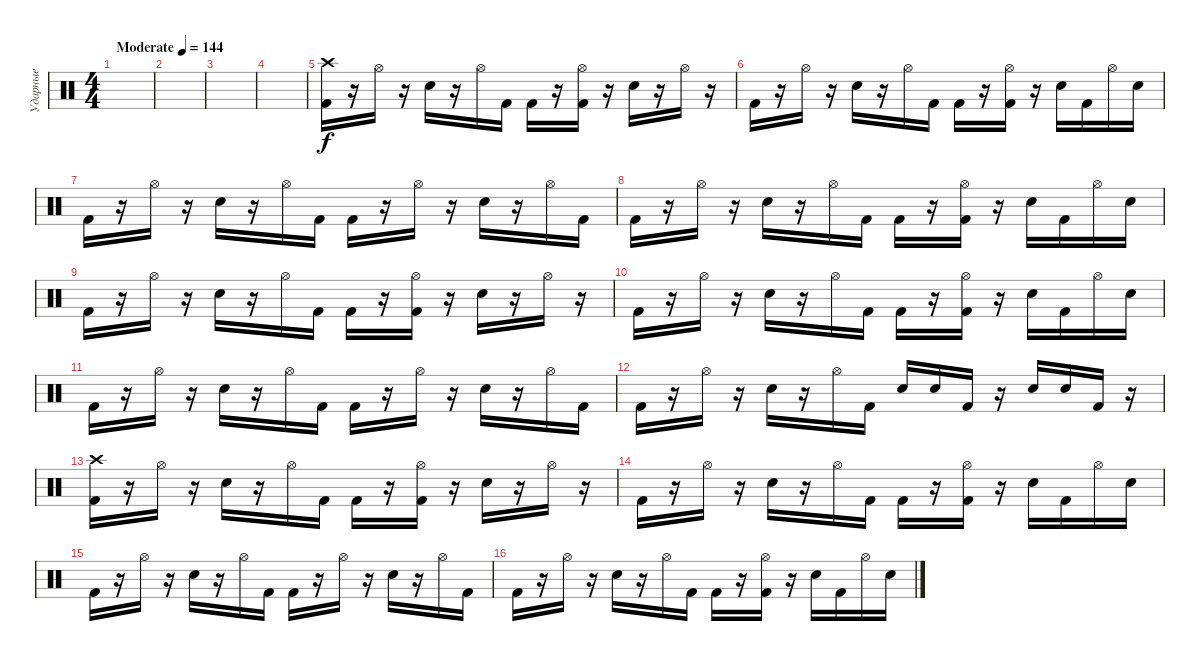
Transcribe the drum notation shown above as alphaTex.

\track ("Ударные" "Ударные") {instrument percussion}
\staff {score}
\articulation defaults
\ts (4 4)
\tempo (144 "Moderate")
\clef neutral
\ks c
|
|
|
|
("Crash high (hit)" "Kick (hit) 2").16 r.16 "Hi-Hat (open)".16 r.16 "Electric Snare (hit)".16 r.16 "Hi-Hat (open)".16 "Kick (hit) 2".16 "Kick (hit) 2".16 r.16 ("Hi-Hat (open)" "Kick (hit) 2").16 r.16 "Electric Snare (hit)".16 r.16 "Hi-Hat (open)".16 r.16 |
"Kick (hit) 2".16 r.16 "Hi-Hat (open)".16 r.16 "Electric Snare (hit)".16 r.16 "Hi-Hat (open)".16 "Kick (hit) 2".16 "Kick (hit) 2".16 r.16 ("Hi-Hat (open)" "Kick (hit) 2").16 r.16 "Electric Snare (hit)".16 "Kick (hit) 2".16 "Hi-Hat (open)".16 "Electric Snare (hit)".16 |
"Kick (hit) 2".16 r.16 "Hi-Hat (open)".16 r.16 "Electric Snare (hit)".16 r.16 "Hi-Hat (open)".16 "Kick (hit) 2".16 "Kick (hit) 2".16 r.16 "Hi-Hat (open)".16 r.16 "Electric Snare (hit)".16 r.16 "Hi-Hat (open)".16 "Kick (hit) 2".16 |
"Kick (hit) 2".16 r.16 "Hi-Hat (open)".16 r.16 "Electric Snare (hit)".16 r.16 "Hi-Hat (open)".16 "Kick (hit) 2".16 "Kick (hit) 2".16 r.16 ("Hi-Hat (open)" "Kick (hit) 2").16 r.16 "Electric Snare (hit)".16 "Kick (hit) 2".16 "Hi-Hat (open)".16 "Electric Snare (hit)".16 |
"Kick (hit) 2".16 r.16 "Hi-Hat (open)".16 r.16 "Electric Snare (hit)".16 r.16 "Hi-Hat (open)".16 "Kick (hit) 2".16 "Kick (hit) 2".16 r.16 ("Hi-Hat (open)" "Kick (hit) 2").16 r.16 "Electric Snare (hit)".16 r.16 "Hi-Hat (open)".16 r.16 |
"Kick (hit) 2".16 r.16 "Hi-Hat (open)".16 r.16 "Electric Snare (hit)".16 r.16 "Hi-Hat (open)".16 "Kick (hit) 2".16 "Kick (hit) 2".16 r.16 ("Hi-Hat (open)" "Kick (hit) 2").16 r.16 "Electric Snare (hit)".16 "Kick (hit) 2".16 "Hi-Hat (open)".16 "Electric Snare (hit)".16 |
"Kick (hit) 2".16 r.16 "Hi-Hat (open)".16 r.16 "Electric Snare (hit)".16 r.16 "Hi-Hat (open)".16 "Kick (hit) 2".16 "Kick (hit) 2".16 r.16 "Hi-Hat (open)".16 r.16 "Electric Snare (hit)".16 r.16 "Hi-Hat (open)".16 "Kick (hit) 2".16 |
"Kick (hit) 2".16 r.16 "Hi-Hat (open)".16 r.16 "Electric Snare (hit)".16 r.16 "Hi-Hat (open)".16 "Kick (hit) 2".16 "Electric Snare (hit)".16 "Electric Snare (hit)".16 "Kick (hit) 2".16 r.16 "Electric Snare (hit)".16 "Electric Snare (hit)".16 "Kick (hit) 2".16 r.16 |
("Crash high (hit)" "Kick (hit) 2").16 r.16 "Hi-Hat (open)".16 r.16 "Electric Snare (hit)".16 r.16 "Hi-Hat (open)".16 "Kick (hit) 2".16 "Kick (hit) 2".16 r.16 ("Hi-Hat (open)" "Kick (hit) 2").16 r.16 "Electric Snare (hit)".16 r.16 "Hi-Hat (open)".16 r.16 |
"Kick (hit) 2".16 r.16 "Hi-Hat (open)".16 r.16 "Electric Snare (hit)".16 r.16 "Hi-Hat (open)".16 "Kick (hit) 2".16 "Kick (hit) 2".16 r.16 ("Hi-Hat (open)" "Kick (hit) 2").16 r.16 "Electric Snare (hit)".16 "Kick (hit) 2".16 "Hi-Hat (open)".16 "Electric Snare (hit)".16 |
"Kick (hit) 2".16 r.16 "Hi-Hat (open)".16 r.16 "Electric Snare (hit)".16 r.16 "Hi-Hat (open)".16 "Kick (hit) 2".16 "Kick (hit) 2".16 r.16 "Hi-Hat (open)".16 r.16 "Electric Snare (hit)".16 r.16 "Hi-Hat (open)".16 "Kick (hit) 2".16 |
"Kick (hit) 2".16 r.16 "Hi-Hat (open)".16 r.16 "Electric Snare (hit)".16 r.16 "Hi-Hat (open)".16 "Kick (hit) 2".16 "Kick (hit) 2".16 r.16 ("Hi-Hat (open)" "Kick (hit) 2").16 r.16 "Electric Snare (hit)".16 "Kick (hit) 2".16 "Hi-Hat (open)".16 "Electric Snare (hit)".16
